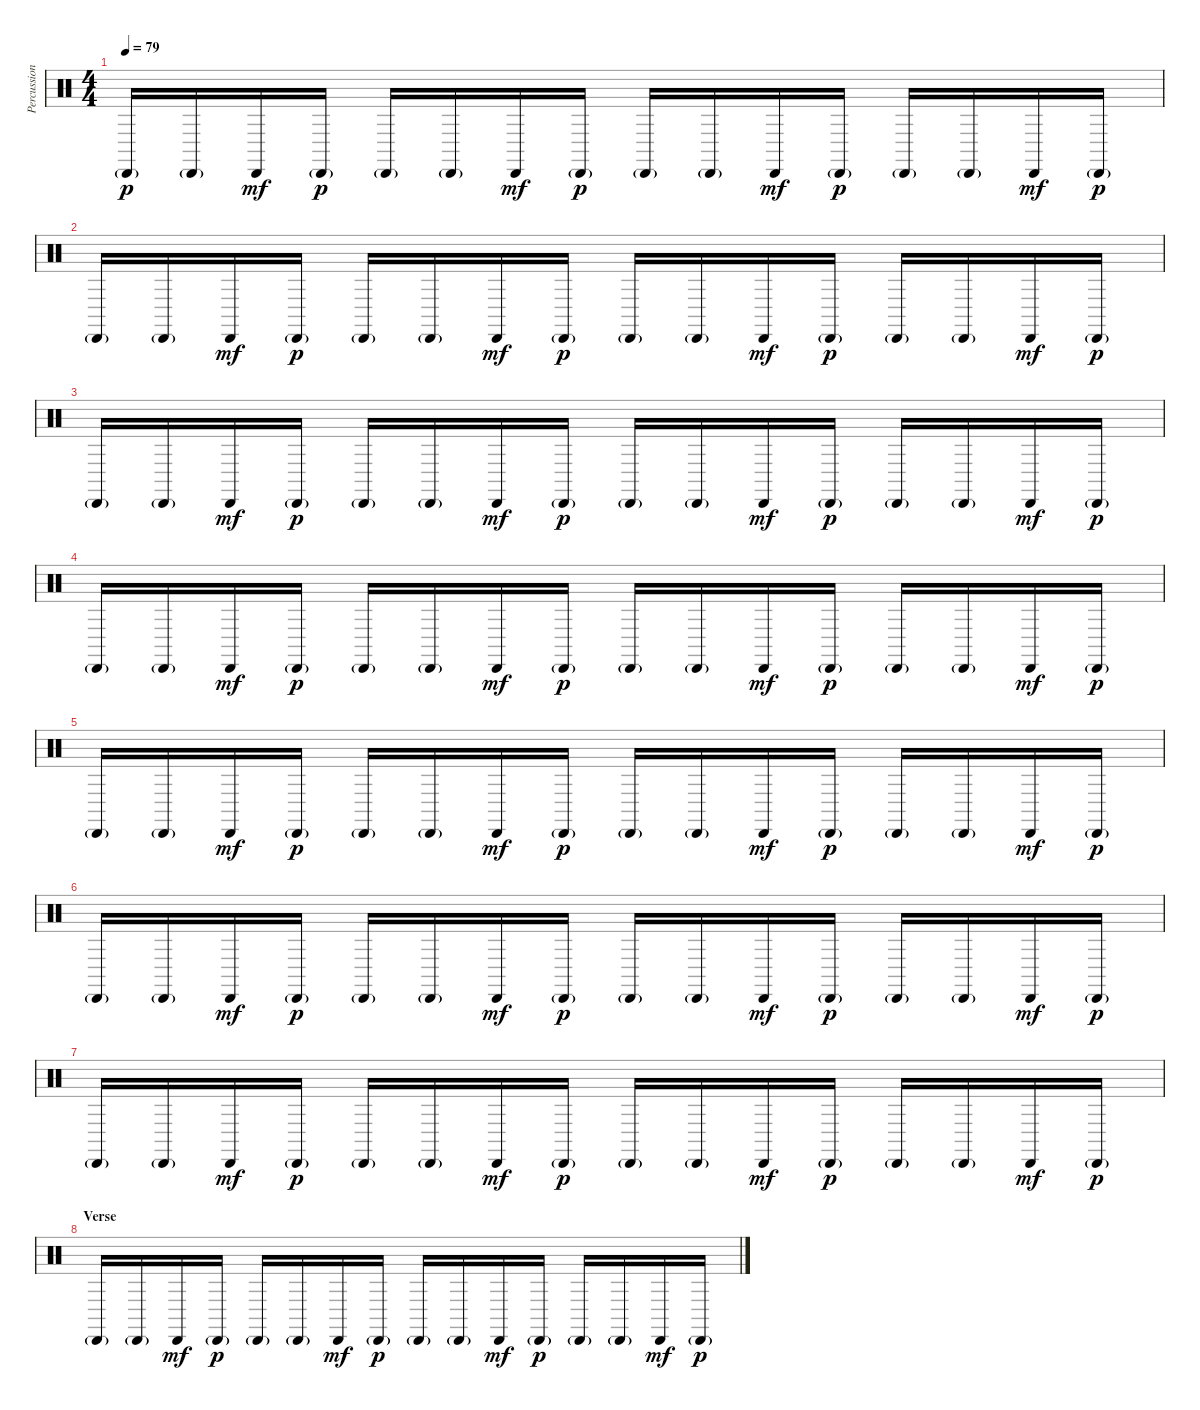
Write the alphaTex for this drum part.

\track ("Percussion Overdubs" "Percussion") {instrument percussion}
\staff {score}
\articulation defaults
\ts (4 4)
\tempo 79
\clef neutral
\ks c "Cabasa (hit)"{g}.16{dy p} "Cabasa (hit)"{g}.16 "Cabasa (hit)".16{dy mf} "Cabasa (hit)"{g}.16{dy p} "Cabasa (hit)"{g}.16 "Cabasa (hit)"{g}.16 "Cabasa (hit)".16{dy mf} "Cabasa (hit)"{g}.16{dy p} "Cabasa (hit)"{g}.16 "Cabasa (hit)"{g}.16 "Cabasa (hit)".16{dy mf} "Cabasa (hit)"{g}.16{dy p} "Cabasa (hit)"{g}.16 "Cabasa (hit)"{g}.16 "Cabasa (hit)".16{dy mf} "Cabasa (hit)"{g}.16{dy p}
|
"Cabasa (hit)"{g}.16 "Cabasa (hit)"{g}.16 "Cabasa (hit)".16{dy mf} "Cabasa (hit)"{g}.16{dy p} "Cabasa (hit)"{g}.16 "Cabasa (hit)"{g}.16 "Cabasa (hit)".16{dy mf} "Cabasa (hit)"{g}.16{dy p} "Cabasa (hit)"{g}.16 "Cabasa (hit)"{g}.16 "Cabasa (hit)".16{dy mf} "Cabasa (hit)"{g}.16{dy p} "Cabasa (hit)"{g}.16 "Cabasa (hit)"{g}.16 "Cabasa (hit)".16{dy mf} "Cabasa (hit)"{g}.16{dy p} |
"Cabasa (hit)"{g}.16 "Cabasa (hit)"{g}.16 "Cabasa (hit)".16{dy mf} "Cabasa (hit)"{g}.16{dy p} "Cabasa (hit)"{g}.16 "Cabasa (hit)"{g}.16 "Cabasa (hit)".16{dy mf} "Cabasa (hit)"{g}.16{dy p} "Cabasa (hit)"{g}.16 "Cabasa (hit)"{g}.16 "Cabasa (hit)".16{dy mf} "Cabasa (hit)"{g}.16{dy p} "Cabasa (hit)"{g}.16 "Cabasa (hit)"{g}.16 "Cabasa (hit)".16{dy mf} "Cabasa (hit)"{g}.16{dy p} |
"Cabasa (hit)"{g}.16 "Cabasa (hit)"{g}.16 "Cabasa (hit)".16{dy mf} "Cabasa (hit)"{g}.16{dy p} "Cabasa (hit)"{g}.16 "Cabasa (hit)"{g}.16 "Cabasa (hit)".16{dy mf} "Cabasa (hit)"{g}.16{dy p} "Cabasa (hit)"{g}.16 "Cabasa (hit)"{g}.16 "Cabasa (hit)".16{dy mf} "Cabasa (hit)"{g}.16{dy p} "Cabasa (hit)"{g}.16 "Cabasa (hit)"{g}.16 "Cabasa (hit)".16{dy mf} "Cabasa (hit)"{g}.16{dy p} |
"Cabasa (hit)"{g}.16 "Cabasa (hit)"{g}.16 "Cabasa (hit)".16{dy mf} "Cabasa (hit)"{g}.16{dy p} "Cabasa (hit)"{g}.16 "Cabasa (hit)"{g}.16 "Cabasa (hit)".16{dy mf} "Cabasa (hit)"{g}.16{dy p} "Cabasa (hit)"{g}.16 "Cabasa (hit)"{g}.16 "Cabasa (hit)".16{dy mf} "Cabasa (hit)"{g}.16{dy p} "Cabasa (hit)"{g}.16 "Cabasa (hit)"{g}.16 "Cabasa (hit)".16{dy mf} "Cabasa (hit)"{g}.16{dy p} |
"Cabasa (hit)"{g}.16 "Cabasa (hit)"{g}.16 "Cabasa (hit)".16{dy mf} "Cabasa (hit)"{g}.16{dy p} "Cabasa (hit)"{g}.16 "Cabasa (hit)"{g}.16 "Cabasa (hit)".16{dy mf} "Cabasa (hit)"{g}.16{dy p} "Cabasa (hit)"{g}.16 "Cabasa (hit)"{g}.16 "Cabasa (hit)".16{dy mf} "Cabasa (hit)"{g}.16{dy p} "Cabasa (hit)"{g}.16 "Cabasa (hit)"{g}.16 "Cabasa (hit)".16{dy mf} "Cabasa (hit)"{g}.16{dy p} |
"Cabasa (hit)"{g}.16 "Cabasa (hit)"{g}.16 "Cabasa (hit)".16{dy mf} "Cabasa (hit)"{g}.16{dy p} "Cabasa (hit)"{g}.16 "Cabasa (hit)"{g}.16 "Cabasa (hit)".16{dy mf} "Cabasa (hit)"{g}.16{dy p} "Cabasa (hit)"{g}.16 "Cabasa (hit)"{g}.16 "Cabasa (hit)".16{dy mf} "Cabasa (hit)"{g}.16{dy p} "Cabasa (hit)"{g}.16 "Cabasa (hit)"{g}.16 "Cabasa (hit)".16{dy mf} "Cabasa (hit)"{g}.16{dy p} |
\section ("" "Verse")
"Cabasa (hit)"{g}.16 "Cabasa (hit)"{g}.16 "Cabasa (hit)".16{dy mf} "Cabasa (hit)"{g}.16{dy p} "Cabasa (hit)"{g}.16 "Cabasa (hit)"{g}.16 "Cabasa (hit)".16{dy mf} "Cabasa (hit)"{g}.16{dy p} "Cabasa (hit)"{g}.16 "Cabasa (hit)"{g}.16 "Cabasa (hit)".16{dy mf} "Cabasa (hit)"{g}.16{dy p} "Cabasa (hit)"{g}.16 "Cabasa (hit)"{g}.16 "Cabasa (hit)".16{dy mf} "Cabasa (hit)"{g}.16{dy p}
